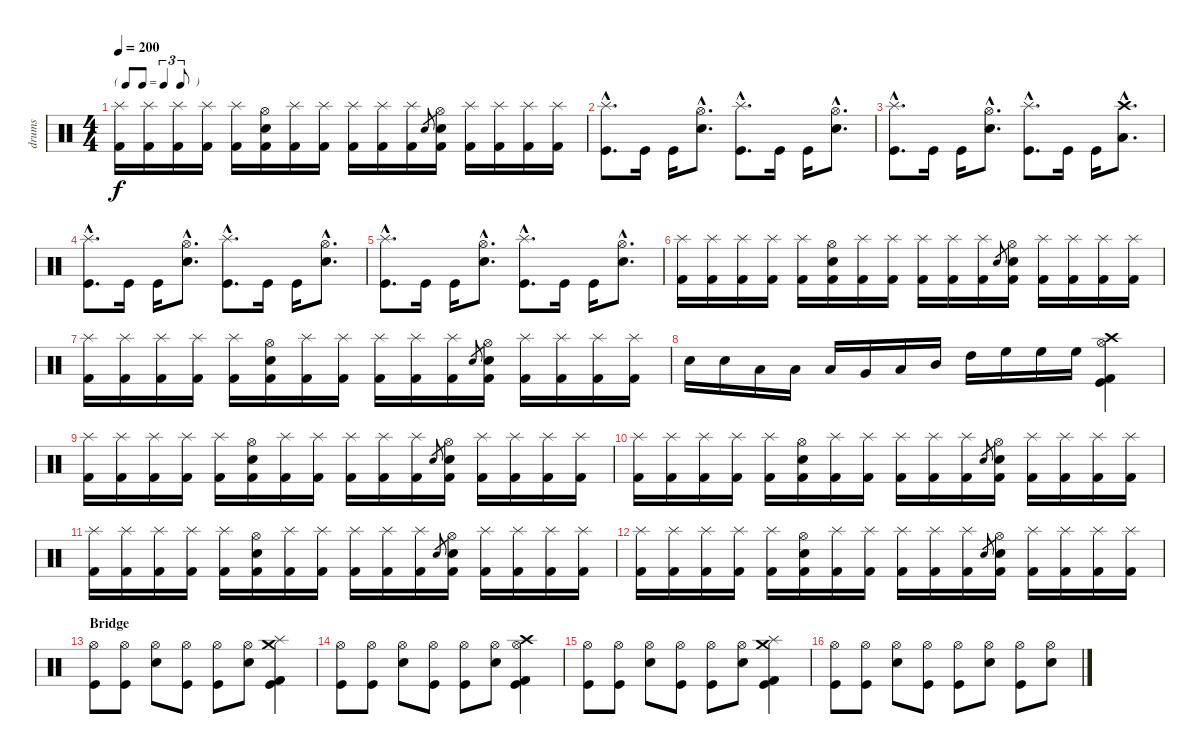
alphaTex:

\track ("drums" "drums") {instrument percussion}
\staff {score}
\articulation defaults
\ts (4 4)
\tf triplet8th
\tempo 200
\clef neutral
\ks c
("Kick (hit) 2" "Splash (hit)").16{dy f} ("Kick (hit) 2" "Splash (hit)").16 ("Kick (hit) 2" "Splash (hit)").16 ("Kick (hit) 2" "Splash (hit)").16 ("Kick (hit) 2" "Splash (hit)").16 ("Kick (hit) 2" "Electric Snare (hit)" "Hi-Hat (open)").16 ("Kick (hit) 2" "Splash (hit)").16 ("Kick (hit) 2" "Splash (hit)").16 ("Kick (hit) 2" "Splash (hit)").16 ("Kick (hit) 2" "Splash (hit)").16 ("Kick (hit) 2" "Splash (hit)").16 "Electric Snare (hit)".8{gr} ("Kick (hit) 2" "Electric Snare (hit)" "Hi-Hat (open)").16 ("Kick (hit) 2" "Splash (hit)").16 ("Kick (hit) 2" "Splash (hit)").16 ("Kick (hit) 2" "Splash (hit)").16 ("Kick (hit) 2" "Splash (hit)").16 |
("Splash (hit)"{hac} "Kick (hit)"{hac}).8{d} "Kick (hit)".16 "Kick (hit)".16 ("Hi-Hat (open)"{hac} "Electric Snare (hit)"{hac}).8{d} ("Splash (hit)"{hac} "Kick (hit)"{hac}).8{d} "Kick (hit)".16 "Kick (hit)".16 ("Hi-Hat (open)"{hac} "Electric Snare (hit)"{hac}).8{d} |
("Splash (hit)"{hac} "Kick (hit)"{hac}).8{d} "Kick (hit)".16 "Kick (hit)".16 ("Hi-Hat (open)"{hac} "Electric Snare (hit)"{hac}).8{d} ("Splash (hit)"{hac} "Kick (hit)"{hac}).8{d} "Kick (hit)".16 "Kick (hit)".16 ("Crash high (hit)"{hac} "Low Floor Tom (hit)"{hac}).8{d} |
("Splash (hit)"{hac} "Kick (hit)"{hac}).8{d} "Kick (hit)".16 "Kick (hit)".16 ("Hi-Hat (open)"{hac} "Electric Snare (hit)"{hac}).8{d} ("Splash (hit)"{hac} "Kick (hit)"{hac}).8{d} "Kick (hit)".16 "Kick (hit)".16 ("Hi-Hat (open)"{hac} "Electric Snare (hit)"{hac}).8{d} |
("Splash (hit)"{hac} "Kick (hit)"{hac}).8{d} "Kick (hit)".16 "Kick (hit)".16 ("Hi-Hat (open)"{hac} "Electric Snare (hit)"{hac}).8{d} ("Splash (hit)"{hac} "Kick (hit)"{hac}).8{d} "Kick (hit)".16 "Kick (hit)".16 ("Hi-Hat (open)"{hac} "Electric Snare (hit)"{hac}).8{d} |
("Kick (hit) 2" "Splash (hit)").16 ("Kick (hit) 2" "Splash (hit)").16 ("Kick (hit) 2" "Splash (hit)").16 ("Kick (hit) 2" "Splash (hit)").16 ("Kick (hit) 2" "Splash (hit)").16 ("Kick (hit) 2" "Electric Snare (hit)" "Hi-Hat (open)").16 ("Kick (hit) 2" "Splash (hit)").16 ("Kick (hit) 2" "Splash (hit)").16 ("Kick (hit) 2" "Splash (hit)").16 ("Kick (hit) 2" "Splash (hit)").16 ("Kick (hit) 2" "Splash (hit)").16 "Electric Snare (hit)".8{gr} ("Kick (hit) 2" "Electric Snare (hit)" "Hi-Hat (open)").16 ("Kick (hit) 2" "Splash (hit)").16 ("Kick (hit) 2" "Splash (hit)").16 ("Kick (hit) 2" "Splash (hit)").16 ("Kick (hit) 2" "Splash (hit)").16 |
("Kick (hit) 2" "Splash (hit)").16 ("Kick (hit) 2" "Splash (hit)").16 ("Kick (hit) 2" "Splash (hit)").16 ("Kick (hit) 2" "Splash (hit)").16 ("Kick (hit) 2" "Splash (hit)").16 ("Kick (hit) 2" "Electric Snare (hit)" "Hi-Hat (open)").16 ("Kick (hit) 2" "Splash (hit)").16 ("Kick (hit) 2" "Splash (hit)").16 ("Kick (hit) 2" "Splash (hit)").16 ("Kick (hit) 2" "Splash (hit)").16 ("Kick (hit) 2" "Splash (hit)").16 "Electric Snare (hit)".8{gr} ("Kick (hit) 2" "Electric Snare (hit)" "Hi-Hat (open)").16 ("Kick (hit) 2" "Splash (hit)").16 ("Kick (hit) 2" "Splash (hit)").16 ("Kick (hit) 2" "Splash (hit)").16 ("Kick (hit) 2" "Splash (hit)").16 |
"Electric Snare (hit)".16 "Snare (hit) 2".16 "Low Floor Tom (hit)".16 "Low Floor Tom (hit)".16 "Low Floor Tom (hit)".16 "Very Low Tom (hit)".16 "Low Tom (hit)".16 "Mid Tom (hit)".16 "High Tom (hit)".16 "High Floor Tom (hit)".16 "High Floor Tom (hit)".16 "High Floor Tom (hit)".16 ("Crash high (hit)" "Hi-Hat (open)" "Kick (hit)" "Kick (hit) 2").4 |
("Kick (hit) 2" "Splash (hit)").16 ("Kick (hit) 2" "Splash (hit)").16 ("Kick (hit) 2" "Splash (hit)").16 ("Kick (hit) 2" "Splash (hit)").16 ("Kick (hit) 2" "Splash (hit)").16 ("Kick (hit) 2" "Electric Snare (hit)" "Hi-Hat (open)").16 ("Kick (hit) 2" "Splash (hit)").16 ("Kick (hit) 2" "Splash (hit)").16 ("Kick (hit) 2" "Splash (hit)").16 ("Kick (hit) 2" "Splash (hit)").16 ("Kick (hit) 2" "Splash (hit)").16 "Electric Snare (hit)".8{gr} ("Kick (hit) 2" "Electric Snare (hit)" "Hi-Hat (open)").16 ("Kick (hit) 2" "Splash (hit)").16 ("Kick (hit) 2" "Splash (hit)").16 ("Kick (hit) 2" "Splash (hit)").16 ("Kick (hit) 2" "Splash (hit)").16 |
("Kick (hit) 2" "Splash (hit)").16 ("Kick (hit) 2" "Splash (hit)").16 ("Kick (hit) 2" "Splash (hit)").16 ("Kick (hit) 2" "Splash (hit)").16 ("Kick (hit) 2" "Splash (hit)").16 ("Kick (hit) 2" "Electric Snare (hit)" "Hi-Hat (open)").16 ("Kick (hit) 2" "Splash (hit)").16 ("Kick (hit) 2" "Splash (hit)").16 ("Kick (hit) 2" "Splash (hit)").16 ("Kick (hit) 2" "Splash (hit)").16 ("Kick (hit) 2" "Splash (hit)").16 "Electric Snare (hit)".8{gr} ("Kick (hit) 2" "Electric Snare (hit)" "Hi-Hat (open)").16 ("Kick (hit) 2" "Splash (hit)").16 ("Kick (hit) 2" "Splash (hit)").16 ("Kick (hit) 2" "Splash (hit)").16 ("Kick (hit) 2" "Splash (hit)").16 |
("Kick (hit) 2" "Splash (hit)").16 ("Kick (hit) 2" "Splash (hit)").16 ("Kick (hit) 2" "Splash (hit)").16 ("Kick (hit) 2" "Splash (hit)").16 ("Kick (hit) 2" "Splash (hit)").16 ("Kick (hit) 2" "Electric Snare (hit)" "Hi-Hat (open)").16 ("Kick (hit) 2" "Splash (hit)").16 ("Kick (hit) 2" "Splash (hit)").16 ("Kick (hit) 2" "Splash (hit)").16 ("Kick (hit) 2" "Splash (hit)").16 ("Kick (hit) 2" "Splash (hit)").16 "Electric Snare (hit)".8{gr} ("Kick (hit) 2" "Electric Snare (hit)" "Hi-Hat (open)").16 ("Kick (hit) 2" "Splash (hit)").16 ("Kick (hit) 2" "Splash (hit)").16 ("Kick (hit) 2" "Splash (hit)").16 ("Kick (hit) 2" "Splash (hit)").16 |
("Kick (hit) 2" "Splash (hit)").16 ("Kick (hit) 2" "Splash (hit)").16 ("Kick (hit) 2" "Splash (hit)").16 ("Kick (hit) 2" "Splash (hit)").16 ("Kick (hit) 2" "Splash (hit)").16 ("Kick (hit) 2" "Electric Snare (hit)" "Hi-Hat (open)").16 ("Kick (hit) 2" "Splash (hit)").16 ("Kick (hit) 2" "Splash (hit)").16 ("Kick (hit) 2" "Splash (hit)").16 ("Kick (hit) 2" "Splash (hit)").16 ("Kick (hit) 2" "Splash (hit)").16 "Electric Snare (hit)".8{gr} ("Kick (hit) 2" "Electric Snare (hit)" "Hi-Hat (open)").16 ("Kick (hit) 2" "Splash (hit)").16 ("Kick (hit) 2" "Splash (hit)").16 ("Kick (hit) 2" "Splash (hit)").16 ("Kick (hit) 2" "Splash (hit)").16 |
\section ("" "Bridge")
("Hi-Hat (open)" "Kick (hit)").8 ("Hi-Hat (open)" "Kick (hit)").8 ("Hi-Hat (open)" "Snare (hit) 2").8 ("Hi-Hat (open)" "Kick (hit)").8 ("Hi-Hat (open)" "Kick (hit)").8 ("Hi-Hat (open)" "Snare (hit) 2").8 ("Crash medium (hit)" "Splash (hit)" "Kick (hit)" "Kick (hit) 2").4 |
("Hi-Hat (open)" "Kick (hit)").8 ("Hi-Hat (open)" "Kick (hit)").8 ("Hi-Hat (open)" "Snare (hit) 2").8 ("Hi-Hat (open)" "Kick (hit)").8 ("Hi-Hat (open)" "Kick (hit)").8 ("Hi-Hat (open)" "Snare (hit) 2").8 ("Crash high (hit)" "Hi-Hat (open)" "Kick (hit)" "Kick (hit) 2").4 |
("Hi-Hat (open)" "Kick (hit)").8 ("Hi-Hat (open)" "Kick (hit)").8 ("Hi-Hat (open)" "Snare (hit) 2").8 ("Hi-Hat (open)" "Kick (hit)").8 ("Hi-Hat (open)" "Kick (hit)").8 ("Hi-Hat (open)" "Snare (hit) 2").8 ("Crash medium (hit)" "Splash (hit)" "Kick (hit)" "Kick (hit) 2").4 |
("Hi-Hat (open)" "Kick (hit)").8 ("Hi-Hat (open)" "Kick (hit)").8 ("Hi-Hat (open)" "Snare (hit) 2").8 ("Hi-Hat (open)" "Kick (hit)").8 ("Hi-Hat (open)" "Kick (hit)").8 ("Hi-Hat (open)" "Snare (hit) 2").8 ("Hi-Hat (open)" "Kick (hit)").8 ("Hi-Hat (open)" "Snare (hit) 2").8
